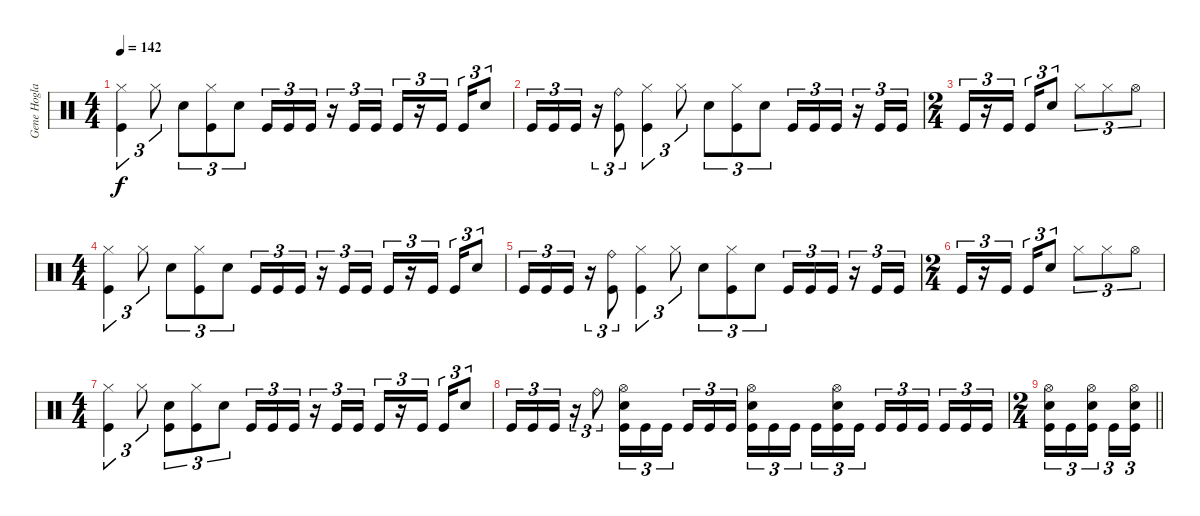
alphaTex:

\track ("Gene Hoglan" "Gene Hogla") {instrument percussion}
\staff {score}
\articulation defaults
\ts (4 4)
\tempo 142
\clef neutral
\ks c
("Kick (hit)" "Hi-Hat (closed)").4{tu (3 2) dy f} "Hi-Hat (closed)".8{tu (3 2)} "Snare (hit) 2".8{tu (3 2)} ("Kick (hit)" "Hi-Hat (closed)").8{tu (3 2)} "Snare (hit) 2".8{tu (3 2)} "Kick (hit)".16{tu (3 2)} "Kick (hit)".16{tu (3 2)} "Kick (hit)".16{tu (3 2)} r.16{tu (3 2)} "Kick (hit)".16{tu (3 2)} "Kick (hit)".16{tu (3 2)} "Kick (hit)".16{tu (3 2)} r.16{tu (3 2)} "Kick (hit)".16{tu (3 2) beam splitsecondary} "Kick (hit)".16{tu (3 2)} "Snare (hit) 2".8{tu (3 2)} |
"Kick (hit)".16{tu (3 2)} "Kick (hit)".16{tu (3 2)} "Kick (hit)".16{tu (3 2)} r.16{tu (3 2)} ("Kick (hit)" "Ride (bell)").8{tu (3 2)} ("Kick (hit)" "Hi-Hat (closed)").4{tu (3 2)} "Hi-Hat (closed)".8{tu (3 2)} "Snare (hit) 2".8{tu (3 2)} ("Hi-Hat (closed)" "Kick (hit)").8{tu (3 2)} "Snare (hit) 2".8{tu (3 2)} "Kick (hit)".16{tu (3 2)} "Kick (hit)".16{tu (3 2)} "Kick (hit)".16{tu (3 2)} r.16{tu (3 2)} "Kick (hit)".16{tu (3 2)} "Kick (hit)".16{tu (3 2)} |
\ts (2 4)
"Kick (hit)".16{tu (3 2)} r.16{tu (3 2)} "Kick (hit)".16{tu (3 2) beam splitsecondary} "Kick (hit)".16{tu (3 2)} "Snare (hit) 2".8{tu (3 2)} "Hi-Hat (closed)".8{tu (3 2)} "Hi-Hat (closed)".8{tu (3 2)} "Hi-Hat (open)".8{tu (3 2)} |
\ts (4 4)
("Kick (hit)" "Hi-Hat (closed)").4{tu (3 2)} "Hi-Hat (closed)".8{tu (3 2)} "Snare (hit) 2".8{tu (3 2)} ("Kick (hit)" "Hi-Hat (closed)").8{tu (3 2)} "Snare (hit) 2".8{tu (3 2)} "Kick (hit)".16{tu (3 2)} "Kick (hit)".16{tu (3 2)} "Kick (hit)".16{tu (3 2)} r.16{tu (3 2)} "Kick (hit)".16{tu (3 2)} "Kick (hit)".16{tu (3 2)} "Kick (hit)".16{tu (3 2)} r.16{tu (3 2)} "Kick (hit)".16{tu (3 2) beam splitsecondary} "Kick (hit)".16{tu (3 2)} "Snare (hit) 2".8{tu (3 2)} |
"Kick (hit)".16{tu (3 2)} "Kick (hit)".16{tu (3 2)} "Kick (hit)".16{tu (3 2)} r.16{tu (3 2)} ("Kick (hit)" "Ride (bell)").8{tu (3 2)} ("Kick (hit)" "Hi-Hat (closed)").4{tu (3 2)} "Hi-Hat (closed)".8{tu (3 2)} "Snare (hit) 2".8{tu (3 2)} ("Hi-Hat (closed)" "Kick (hit)").8{tu (3 2)} "Snare (hit) 2".8{tu (3 2)} "Kick (hit)".16{tu (3 2)} "Kick (hit)".16{tu (3 2)} "Kick (hit)".16{tu (3 2)} r.16{tu (3 2)} "Kick (hit)".16{tu (3 2)} "Kick (hit)".16{tu (3 2)} |
\ts (2 4)
"Kick (hit)".16{tu (3 2)} r.16{tu (3 2)} "Kick (hit)".16{tu (3 2) beam splitsecondary} "Kick (hit)".16{tu (3 2)} "Snare (hit) 2".8{tu (3 2)} "Hi-Hat (closed)".8{tu (3 2)} "Hi-Hat (closed)".8{tu (3 2)} "Hi-Hat (open)".8{tu (3 2)} |
\ts (4 4)
("Kick (hit)" "Hi-Hat (closed)").4{tu (3 2)} "Hi-Hat (closed)".8{tu (3 2)} ("Kick (hit)" "Snare (hit) 2").8{tu (3 2)} ("Kick (hit)" "Hi-Hat (closed)").8{tu (3 2)} "Snare (hit) 2".8{tu (3 2)} "Kick (hit)".16{tu (3 2)} "Kick (hit)".16{tu (3 2)} "Kick (hit)".16{tu (3 2)} r.16{tu (3 2)} "Kick (hit)".16{tu (3 2)} "Kick (hit)".16{tu (3 2)} "Kick (hit)".16{tu (3 2)} r.16{tu (3 2)} "Kick (hit)".16{tu (3 2) beam splitsecondary} "Kick (hit)".16{tu (3 2)} "Snare (hit) 2".8{tu (3 2)} |
"Kick (hit)".16{tu (3 2)} "Kick (hit)".16{tu (3 2)} "Kick (hit)".16{tu (3 2)} r.16{tu (3 2)} "Ride (bell)".8{tu (3 2)} ("Snare (hit) 2" "Hi-Hat (open)" "Kick (hit)").16{tu (3 2)} "Kick (hit)".16{tu (3 2)} "Kick (hit)".16{tu (3 2) beam splitsecondary} "Kick (hit)".16{tu (3 2)} "Kick (hit)".16{tu (3 2)} "Kick (hit)".16{tu (3 2)} ("Snare (hit) 2" "Hi-Hat (open)" "Kick (hit)").16{tu (3 2)} "Kick (hit)".16{tu (3 2)} "Kick (hit)".16{tu (3 2) beam splitsecondary} "Kick (hit)".16{tu (3 2)} ("Snare (hit) 2" "Hi-Hat (open)" "Kick (hit)").16{tu (3 2)} "Kick (hit)".16{tu (3 2)} "Kick (hit)".16{tu (3 2)} "Kick (hit)".16{tu (3 2)} "Kick (hit)".16{tu (3 2) beam splitsecondary} "Kick (hit)".16{tu (3 2)} "Kick (hit)".16{tu (3 2)} "Kick (hit)".16{tu (3 2)} |
\ts (2 4)
\barLineRight lightlight
("Hi-Hat (open)" "Snare (hit) 2" "Kick (hit)").16{tu (3 2)} "Kick (hit)".16{tu (3 2)} ("Hi-Hat (open)" "Snare (hit) 2" "Kick (hit)").16{tu (3 2) beam splitsecondary} "Kick (hit)".16{tu (3 2)} ("Hi-Hat (open)" "Snare (hit) 2" "Kick (hit)").16{tu (3 2)}
